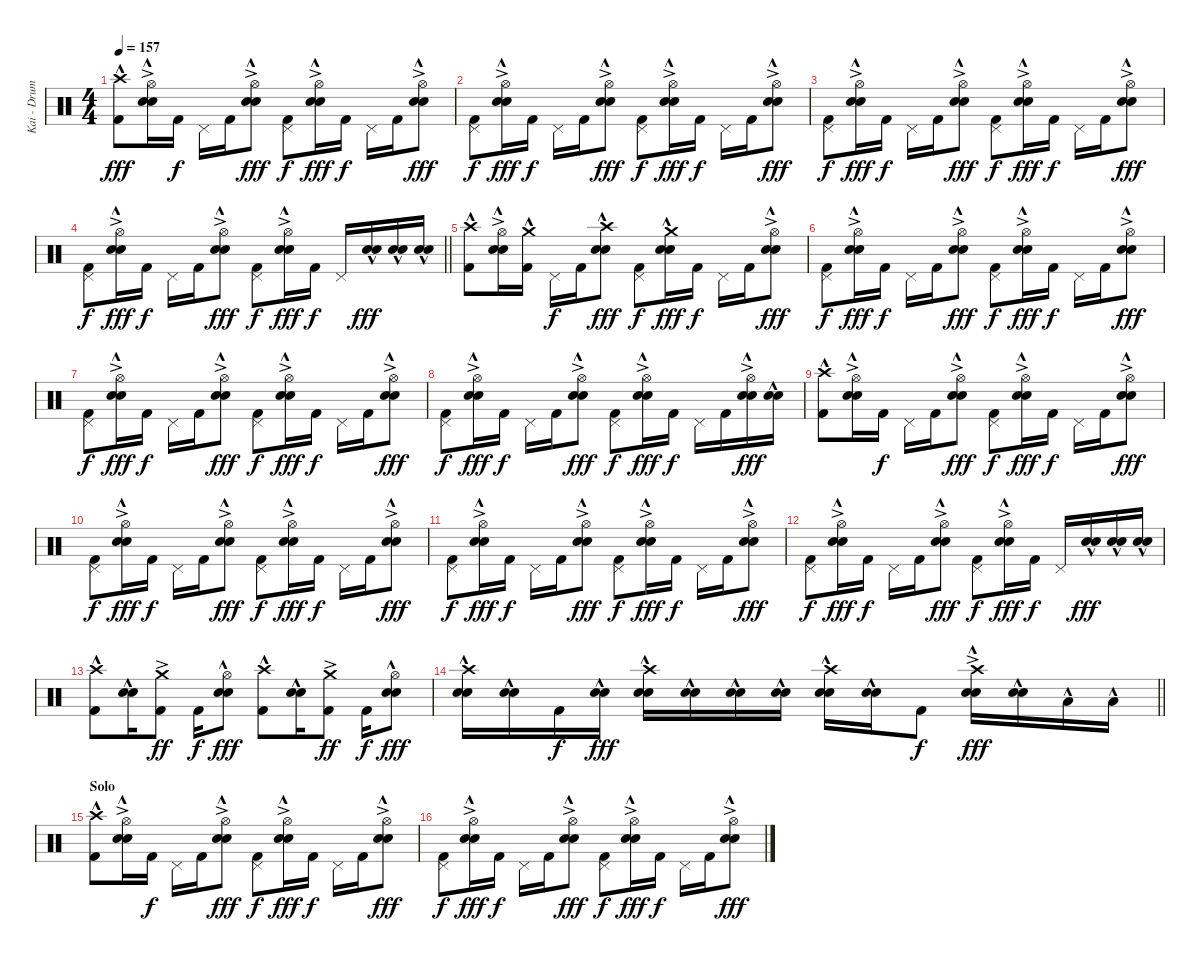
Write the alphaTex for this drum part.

\track ("Kai - Drums" "Kai - Drum") {instrument percussion}
\staff {score}
\articulation defaults
\ts (4 4)
\tempo 157
\clef neutral
\ks c
("Crash high (hit)"{hac} "Kick (hit) 2").8{dy fff} ("Hi-Hat (open)"{ac} "Electric Snare (hit)"{hac} "Snare (hit) 2").16 "Kick (hit) 2".16{dy f} "Pedal Hi-Hat (hit)".16 "Kick (hit) 2".16 ("Hi-Hat (open)"{ac} "Electric Snare (hit)"{hac} "Snare (hit) 2").8{dy fff} ("Pedal Hi-Hat (hit)" "Kick (hit) 2").8{dy f} ("Hi-Hat (open)"{ac} "Electric Snare (hit)"{hac} "Snare (hit) 2").16{dy fff} "Kick (hit) 2".16{dy f} "Pedal Hi-Hat (hit)".16 "Kick (hit) 2".16 ("Hi-Hat (open)"{ac} "Electric Snare (hit)"{hac} "Snare (hit) 2").8{dy fff} |
("Pedal Hi-Hat (hit)" "Kick (hit) 2").8{dy f} ("Hi-Hat (open)"{ac} "Electric Snare (hit)"{hac} "Snare (hit) 2").16{dy fff} "Kick (hit) 2".16{dy f} "Pedal Hi-Hat (hit)".16 "Kick (hit) 2".16 ("Hi-Hat (open)"{ac} "Electric Snare (hit)"{hac} "Snare (hit) 2").8{dy fff} ("Pedal Hi-Hat (hit)" "Kick (hit) 2").8{dy f} ("Hi-Hat (open)"{ac} "Electric Snare (hit)"{hac} "Snare (hit) 2").16{dy fff} "Kick (hit) 2".16{dy f} "Pedal Hi-Hat (hit)".16 "Kick (hit) 2".16 ("Hi-Hat (open)"{ac} "Electric Snare (hit)"{hac} "Snare (hit) 2").8{dy fff} |
("Pedal Hi-Hat (hit)" "Kick (hit) 2").8{dy f} ("Hi-Hat (open)"{ac} "Electric Snare (hit)"{hac} "Snare (hit) 2").16{dy fff} "Kick (hit) 2".16{dy f} "Pedal Hi-Hat (hit)".16 "Kick (hit) 2".16 ("Hi-Hat (open)"{ac} "Electric Snare (hit)"{hac} "Snare (hit) 2").8{dy fff} ("Pedal Hi-Hat (hit)" "Kick (hit) 2").8{dy f} ("Hi-Hat (open)"{ac} "Electric Snare (hit)"{hac} "Snare (hit) 2").16{dy fff} "Kick (hit) 2".16{dy f} "Pedal Hi-Hat (hit)".16 "Kick (hit) 2".16 ("Hi-Hat (open)"{ac} "Electric Snare (hit)"{hac} "Snare (hit) 2").8{dy fff} |
\barLineRight lightlight
("Pedal Hi-Hat (hit)" "Kick (hit) 2").8{dy f} ("Hi-Hat (open)"{ac} "Electric Snare (hit)"{hac} "Snare (hit) 2").16{dy fff} "Kick (hit) 2".16{dy f} "Pedal Hi-Hat (hit)".16 "Kick (hit) 2".16 ("Hi-Hat (open)"{ac} "Electric Snare (hit)"{hac} "Snare (hit) 2").8{dy fff} ("Pedal Hi-Hat (hit)" "Kick (hit) 2").8{dy f} ("Hi-Hat (open)"{ac} "Electric Snare (hit)"{hac} "Snare (hit) 2").16{dy fff} "Kick (hit) 2".16{dy f} "Pedal Hi-Hat (hit)".16 ("Electric Snare (hit)"{hac} "Snare (hit) 2").16{dy fff} ("Electric Snare (hit)"{hac} "Snare (hit) 2").16 ("Electric Snare (hit)"{hac} "Snare (hit) 2").16 |
\section ("" "")
("Crash high (hit)"{hac} "Kick (hit) 2").8 ("Hi-Hat (open)"{ac} "Electric Snare (hit)"{hac} "Snare (hit) 2").16 ("Crash medium (hit)"{hac} "Kick (hit) 2").16 "Pedal Hi-Hat (hit)".16{dy f} "Kick (hit) 2".16 ("Crash high (hit)"{hac} "Electric Snare (hit)"{hac} "Snare (hit) 2").8{dy fff} ("Pedal Hi-Hat (hit)" "Kick (hit) 2").8{dy f} ("Crash medium (hit)"{hac} "Electric Snare (hit)"{hac} "Snare (hit) 2").16{dy fff} "Kick (hit) 2".16{dy f} "Pedal Hi-Hat (hit)".16 "Kick (hit) 2".16 ("Hi-Hat (open)"{ac} "Electric Snare (hit)"{hac} "Snare (hit) 2").8{dy fff} |
("Pedal Hi-Hat (hit)" "Kick (hit) 2").8{dy f} ("Hi-Hat (open)"{ac} "Electric Snare (hit)"{hac} "Snare (hit) 2").16{dy fff} "Kick (hit) 2".16{dy f} "Pedal Hi-Hat (hit)".16 "Kick (hit) 2".16 ("Hi-Hat (open)"{ac} "Electric Snare (hit)"{hac} "Snare (hit) 2").8{dy fff} ("Pedal Hi-Hat (hit)" "Kick (hit) 2").8{dy f} ("Hi-Hat (open)"{ac} "Electric Snare (hit)"{hac} "Snare (hit) 2").16{dy fff} "Kick (hit) 2".16{dy f} "Pedal Hi-Hat (hit)".16 "Kick (hit) 2".16 ("Hi-Hat (open)"{ac} "Electric Snare (hit)"{hac} "Snare (hit) 2").8{dy fff} |
("Pedal Hi-Hat (hit)" "Kick (hit) 2").8{dy f} ("Hi-Hat (open)"{ac} "Electric Snare (hit)"{hac} "Snare (hit) 2").16{dy fff} "Kick (hit) 2".16{dy f} "Pedal Hi-Hat (hit)".16 "Kick (hit) 2".16 ("Hi-Hat (open)"{ac} "Electric Snare (hit)"{hac} "Snare (hit) 2").8{dy fff} ("Pedal Hi-Hat (hit)" "Kick (hit) 2").8{dy f} ("Hi-Hat (open)"{ac} "Electric Snare (hit)"{hac} "Snare (hit) 2").16{dy fff} "Kick (hit) 2".16{dy f} "Pedal Hi-Hat (hit)".16 "Kick (hit) 2".16 ("Hi-Hat (open)"{ac} "Electric Snare (hit)"{hac} "Snare (hit) 2").8{dy fff} |
("Pedal Hi-Hat (hit)" "Kick (hit) 2").8{dy f} ("Hi-Hat (open)"{ac} "Electric Snare (hit)"{hac} "Snare (hit) 2").16{dy fff} "Kick (hit) 2".16{dy f} "Pedal Hi-Hat (hit)".16 "Kick (hit) 2".16 ("Hi-Hat (open)"{ac} "Electric Snare (hit)"{hac} "Snare (hit) 2").8{dy fff} ("Pedal Hi-Hat (hit)" "Kick (hit) 2").8{dy f} ("Hi-Hat (open)"{ac} "Electric Snare (hit)"{hac} "Snare (hit) 2").16{dy fff} "Kick (hit) 2".16{dy f} "Pedal Hi-Hat (hit)".16 "Kick (hit) 2".16 ("Hi-Hat (open)"{ac} "Electric Snare (hit)"{hac} "Snare (hit) 2").16{dy fff} ("Electric Snare (hit)"{hac} "Snare (hit) 2").16 |
("Crash high (hit)"{hac} "Kick (hit) 2").8 ("Hi-Hat (open)"{ac} "Electric Snare (hit)"{hac} "Snare (hit) 2").16 "Kick (hit) 2".16{dy f} "Pedal Hi-Hat (hit)".16 "Kick (hit) 2".16 ("Hi-Hat (open)"{ac} "Electric Snare (hit)"{hac} "Snare (hit) 2").8{dy fff} ("Pedal Hi-Hat (hit)" "Kick (hit) 2").8{dy f} ("Hi-Hat (open)"{ac} "Electric Snare (hit)"{hac} "Snare (hit) 2").16{dy fff} "Kick (hit) 2".16{dy f} "Pedal Hi-Hat (hit)".16 "Kick (hit) 2".16 ("Hi-Hat (open)"{ac} "Electric Snare (hit)"{hac} "Snare (hit) 2").8{dy fff} |
("Pedal Hi-Hat (hit)" "Kick (hit) 2").8{dy f} ("Hi-Hat (open)"{ac} "Electric Snare (hit)"{hac} "Snare (hit) 2").16{dy fff} "Kick (hit) 2".16{dy f} "Pedal Hi-Hat (hit)".16 "Kick (hit) 2".16 ("Hi-Hat (open)"{ac} "Electric Snare (hit)"{hac} "Snare (hit) 2").8{dy fff} ("Pedal Hi-Hat (hit)" "Kick (hit) 2").8{dy f} ("Hi-Hat (open)"{ac} "Electric Snare (hit)"{hac} "Snare (hit) 2").16{dy fff} "Kick (hit) 2".16{dy f} "Pedal Hi-Hat (hit)".16 "Kick (hit) 2".16 ("Hi-Hat (open)"{ac} "Electric Snare (hit)"{hac} "Snare (hit) 2").8{dy fff} |
("Pedal Hi-Hat (hit)" "Kick (hit) 2").8{dy f} ("Hi-Hat (open)"{ac} "Electric Snare (hit)"{hac} "Snare (hit) 2").16{dy fff} "Kick (hit) 2".16{dy f} "Pedal Hi-Hat (hit)".16 "Kick (hit) 2".16 ("Hi-Hat (open)"{ac} "Electric Snare (hit)"{hac} "Snare (hit) 2").8{dy fff} ("Pedal Hi-Hat (hit)" "Kick (hit) 2").8{dy f} ("Hi-Hat (open)"{ac} "Electric Snare (hit)"{hac} "Snare (hit) 2").16{dy fff} "Kick (hit) 2".16{dy f} "Pedal Hi-Hat (hit)".16 "Kick (hit) 2".16 ("Hi-Hat (open)"{ac} "Electric Snare (hit)"{hac} "Snare (hit) 2").8{dy fff} |
("Pedal Hi-Hat (hit)" "Kick (hit) 2").8{dy f} ("Hi-Hat (open)"{ac} "Electric Snare (hit)"{hac} "Snare (hit) 2").16{dy fff} "Kick (hit) 2".16{dy f} "Pedal Hi-Hat (hit)".16 "Kick (hit) 2".16 ("Hi-Hat (open)"{ac} "Electric Snare (hit)"{hac} "Snare (hit) 2").8{dy fff} ("Pedal Hi-Hat (hit)" "Kick (hit) 2").8{dy f} ("Hi-Hat (open)"{ac} "Electric Snare (hit)"{hac} "Snare (hit) 2").16{dy fff} "Kick (hit) 2".16{dy f} "Pedal Hi-Hat (hit)".16 ("Electric Snare (hit)"{hac} "Snare (hit) 2").16{dy fff} ("Electric Snare (hit)"{hac} "Snare (hit) 2").16 ("Electric Snare (hit)"{hac} "Snare (hit) 2").16 |
("Crash high (hit)"{hac} "Kick (hit) 2").8 ("Electric Snare (hit)"{hac} "Snare (hit) 2").16 ("Crash medium (hit)"{ac} "Kick (hit) 2").8{dy ff} "Kick (hit) 2".16{dy f} ("Hi-Hat (open)" "Electric Snare (hit)"{hac} "Snare (hit) 2").8{dy fff} ("Crash high (hit)"{hac} "Kick (hit) 2").8 ("Electric Snare (hit)"{hac} "Snare (hit) 2").16 ("Crash medium (hit)"{ac} "Kick (hit) 2").8{dy ff} "Kick (hit) 2".16{dy f} ("Hi-Hat (open)" "Electric Snare (hit)"{hac} "Snare (hit) 2").8{dy fff} |
\barLineRight lightlight
("Crash high (hit)"{hac} "Electric Snare (hit)"{hac} "Snare (hit) 2").16 ("Electric Snare (hit)"{hac} "Snare (hit) 2").16 "Kick (hit) 2".16{dy f} ("Electric Snare (hit)"{hac} "Snare (hit) 2").16{dy fff} ("Crash high (hit)"{hac} "Electric Snare (hit)"{hac} "Snare (hit) 2").16 ("Electric Snare (hit)"{hac} "Snare (hit) 2").16 ("Electric Snare (hit)"{hac} "Snare (hit) 2").16 ("Electric Snare (hit)"{hac} "Snare (hit) 2").16 ("Crash high (hit)"{hac} "Electric Snare (hit)"{hac} "Snare (hit) 2").16 ("Electric Snare (hit)"{hac} "Snare (hit) 2").16 "Kick (hit) 2".8{dy f} ("Crash high (hit)"{ac} "Electric Snare (hit)"{hac} "Snare (hit) 2").16{dy fff} ("Electric Snare (hit)"{hac} "Snare (hit) 2").16 "Low Tom (hit)"{hac}.16 "Low Tom (hit)"{hac}.16 |
\section ("" "Solo")
("Crash high (hit)"{hac} "Kick (hit) 2").8 ("Hi-Hat (open)"{ac} "Electric Snare (hit)"{hac} "Snare (hit) 2").16 "Kick (hit) 2".16{dy f} "Pedal Hi-Hat (hit)".16 "Kick (hit) 2".16 ("Hi-Hat (open)"{ac} "Electric Snare (hit)"{hac} "Snare (hit) 2").8{dy fff} ("Pedal Hi-Hat (hit)" "Kick (hit) 2").8{dy f} ("Hi-Hat (open)"{ac} "Electric Snare (hit)"{hac} "Snare (hit) 2").16{dy fff} "Kick (hit) 2".16{dy f} "Pedal Hi-Hat (hit)".16 "Kick (hit) 2".16 ("Hi-Hat (open)"{ac} "Electric Snare (hit)"{hac} "Snare (hit) 2").8{dy fff} |
("Pedal Hi-Hat (hit)" "Kick (hit) 2").8{dy f} ("Hi-Hat (open)"{ac} "Electric Snare (hit)"{hac} "Snare (hit) 2").16{dy fff} "Kick (hit) 2".16{dy f} "Pedal Hi-Hat (hit)".16 "Kick (hit) 2".16 ("Hi-Hat (open)"{ac} "Electric Snare (hit)"{hac} "Snare (hit) 2").8{dy fff} ("Pedal Hi-Hat (hit)" "Kick (hit) 2").8{dy f} ("Hi-Hat (open)"{ac} "Electric Snare (hit)"{hac} "Snare (hit) 2").16{dy fff} "Kick (hit) 2".16{dy f} "Pedal Hi-Hat (hit)".16 "Kick (hit) 2".16 ("Hi-Hat (open)"{ac} "Electric Snare (hit)"{hac} "Snare (hit) 2").8{dy fff}
